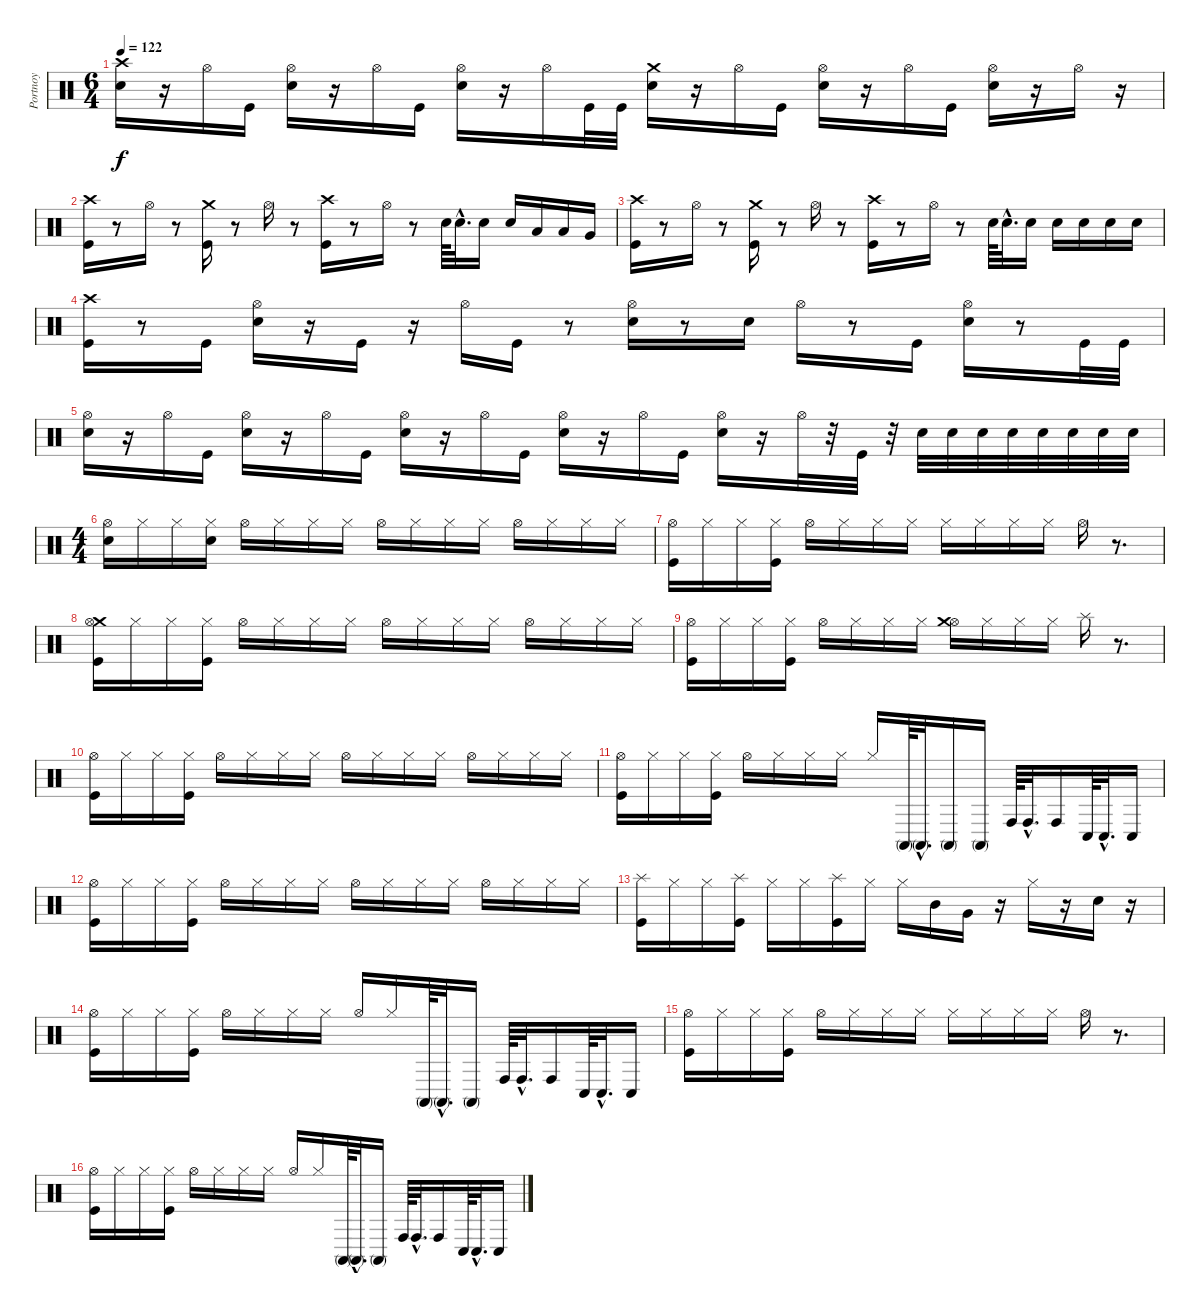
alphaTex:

\track ("Portnoy" "Portnoy") {instrument percussion}
\staff {score}
\articulation defaults
\ts (6 4)
\tempo 122
\clef neutral
\ks c
("Crash high (hit)" "Metronome (bell)").16{dy f} r.16 "Hi-Hat (open)".16 "Kick (hit)".16 ("Hi-Hat (open)" "Metronome (bell)").16 r.16 "Hi-Hat (open)".16 "Kick (hit)".16 ("Hi-Hat (open)" "Metronome (bell)").16 r.16 "Hi-Hat (open)".16 "Kick (hit)".32 "Kick (hit)".32 ("Crash medium (hit)" "Metronome (bell)").16 r.16 "Hi-Hat (open)".16 "Kick (hit)".16 ("Hi-Hat (open)" "Metronome (bell)").16 r.16 "Hi-Hat (open)".16 "Kick (hit)".16 ("Hi-Hat (open)" "Metronome (bell)").16 r.16 "Hi-Hat (open)".16 r.16 |
("Crash high (hit)" "Kick (hit)").16 r.8 "Hi-Hat (open)".16 r.8 ("Crash medium (hit)" "Kick (hit)").16 r.8 "Hi-Hat (open)".16 r.8 ("Crash high (hit)" "Kick (hit)").16 r.8 "Hi-Hat (open)".16 r.8 "Metronome (bell)".64 "Metronome (bell)"{hac}.32{d} "Metronome (bell)".16 "Metronome (bell)".16 "Low Tom (hit)".16 "Low Tom (hit)".16 "Very Low Tom (hit)".16 |
("Crash high (hit)" "Kick (hit)").16 r.8 "Hi-Hat (open)".16 r.8 ("Crash medium (hit)" "Kick (hit)").16 r.8 "Hi-Hat (open)".16 r.8 ("Crash high (hit)" "Kick (hit)").16 r.8 "Hi-Hat (open)".16 r.8 "Metronome (bell)".64 "Metronome (bell)"{hac}.32{d} "Metronome (bell)".16 "Metronome (bell)".16 "Metronome (bell)".16 "Metronome (bell)".16 "Metronome (bell)".16 |
("Crash high (hit)" "Kick (hit)").16 r.8 "Kick (hit)".16 ("Metronome (bell)" "Hi-Hat (open)").16 r.16 "Kick (hit)".16 r.16 "Hi-Hat (open)".16 "Kick (hit)".16 r.8 ("Metronome (bell)" "Hi-Hat (open)").16 r.8 "Metronome (bell)".16 "Hi-Hat (open)".16 r.8 "Kick (hit)".16 ("Metronome (bell)" "Hi-Hat (open)").16 r.8 "Kick (hit)".32 "Kick (hit)".32 |
("Hi-Hat (open)" "Metronome (bell)").16 r.16 "Hi-Hat (open)".16 "Kick (hit)".16 ("Metronome (bell)" "Hi-Hat (open)").16 r.16 "Hi-Hat (open)".16 "Kick (hit)".16 ("Metronome (bell)" "Hi-Hat (open)").16 r.16 "Hi-Hat (open)".16 "Kick (hit)".16 ("Metronome (bell)" "Hi-Hat (open)").16 r.16 "Hi-Hat (open)".16 "Kick (hit)".16 ("Metronome (bell)" "Hi-Hat (open)").16 r.16 "Hi-Hat (open)".32 r.32 "Kick (hit)".32 r.32 "Metronome (bell)".32 "Metronome (bell)".32 "Metronome (bell)".32 "Metronome (bell)".32 "Metronome (bell)".32 "Metronome (bell)".32 "Metronome (bell)".32 "Metronome (bell)".32 |
\ts (4 4)
("Hi-Hat (open)" "Metronome (bell)").16 "Hi-Hat (closed)".16 "Hi-Hat (closed)".16 ("Hi-Hat (closed)" "Metronome (bell)").16 "Hi-Hat (open)".16 "Hi-Hat (closed)".16 "Hi-Hat (closed)".16 "Hi-Hat (closed)".16 "Hi-Hat (open)".16 "Hi-Hat (closed)".16 "Hi-Hat (closed)".16 "Hi-Hat (closed)".16 "Hi-Hat (open)".16 "Hi-Hat (closed)".16 "Hi-Hat (closed)".16 "Hi-Hat (closed)".16 |
("Hi-Hat (open)" "Kick (hit)").16 "Hi-Hat (closed)".16 "Hi-Hat (closed)".16 ("Hi-Hat (closed)" "Kick (hit)").16 "Hi-Hat (open)".16 "Hi-Hat (closed)".16 "Hi-Hat (closed)".16 "Hi-Hat (closed)".16 "Hi-Hat (closed)".16 "Hi-Hat (closed)".16 "Hi-Hat (closed)".16 "Hi-Hat (closed)".16 "Hi-Hat (open)".16 r.8{d} |
("Crash medium (hit)" "Hi-Hat (open)" "Kick (hit)").16 "Hi-Hat (closed)".16 "Hi-Hat (closed)".16 ("Hi-Hat (closed)" "Kick (hit)").16 "Hi-Hat (open)".16 "Hi-Hat (closed)".16 "Hi-Hat (closed)".16 "Hi-Hat (closed)".16 "Hi-Hat (open)".16 "Hi-Hat (closed)".16 "Hi-Hat (closed)".16 "Hi-Hat (closed)".16 "Hi-Hat (open)".16 "Hi-Hat (closed)".16 "Hi-Hat (closed)".16 "Hi-Hat (closed)".16 |
("Hi-Hat (open)" "Kick (hit)").16 "Hi-Hat (closed)".16 "Hi-Hat (closed)".16 ("Hi-Hat (closed)" "Kick (hit)").16 "Hi-Hat (open)".16 "Hi-Hat (closed)".16 "Hi-Hat (closed)".16 "Hi-Hat (closed)".16 ("Hi-Hat (open)" "Crash medium (hit)").16 "Hi-Hat (closed)".16 "Hi-Hat (closed)".16 "Hi-Hat (closed)".16 "Splash (hit)".16 r.8{d} |
("Hi-Hat (open)" "Kick (hit)").16 "Hi-Hat (closed)".16 "Hi-Hat (closed)".16 ("Hi-Hat (closed)" "Kick (hit)").16 "Hi-Hat (open)".16 "Hi-Hat (closed)".16 "Hi-Hat (closed)".16 "Hi-Hat (closed)".16 "Hi-Hat (open)".16 "Hi-Hat (closed)".16 "Hi-Hat (closed)".16 "Hi-Hat (closed)".16 "Hi-Hat (open)".16 "Hi-Hat (closed)".16 "Hi-Hat (closed)".16 "Hi-Hat (closed)".16 |
("Hi-Hat (open)" "Kick (hit)").16 "Hi-Hat (closed)".16 "Hi-Hat (closed)".16 ("Hi-Hat (closed)" "Kick (hit)").16 "Hi-Hat (open)".16 "Hi-Hat (closed)".16 "Hi-Hat (closed)".16 "Hi-Hat (closed)".16 "Hi-Hat (closed)".16 "Conga high (mute)".64 "Conga high (mute)"{hac}.32{d} "Conga high (mute)".16 "Conga high (mute)".16 "Conga high (hit)".64 "Conga high (hit)"{hac}.32{d} "Conga high (hit)".16 "Conga low (hit)".64 "Conga low (hit)"{hac}.32{d} "Conga low (hit)".16 |
("Hi-Hat (open)" "Kick (hit)").16 "Hi-Hat (closed)".16 "Hi-Hat (closed)".16 ("Hi-Hat (closed)" "Kick (hit)").16 "Hi-Hat (open)".16 "Hi-Hat (closed)".16 "Hi-Hat (closed)".16 "Hi-Hat (closed)".16 "Hi-Hat (open)".16 "Hi-Hat (closed)".16 "Hi-Hat (closed)".16 "Hi-Hat (closed)".16 "Hi-Hat (open)".16 "Hi-Hat (closed)".16 "Hi-Hat (closed)".16 "Hi-Hat (closed)".16 |
("Splash (hit)" "Kick (hit)").16 "Hi-Hat (closed)".16 "Hi-Hat (closed)".16 ("Splash (hit)" "Kick (hit)").16 "Hi-Hat (closed)".16 "Hi-Hat (closed)".16 ("Splash (hit)" "Kick (hit)").16 "Hi-Hat (closed)".16 "Hi-Hat (closed)".16 "Mid Tom (hit)".16 "Very Low Tom (hit)".16 r.16 "Hi-Hat (closed)".16 r.16 "Metronome (bell)".16 r.16 |
("Hi-Hat (open)" "Kick (hit)").16 "Hi-Hat (closed)".16 "Hi-Hat (closed)".16 ("Hi-Hat (closed)" "Kick (hit)").16 "Hi-Hat (open)".16 "Hi-Hat (closed)".16 "Hi-Hat (closed)".16 "Hi-Hat (closed)".16 "Hi-Hat (open)".16 "Hi-Hat (closed)".16 "Conga high (mute)".64 "Conga high (mute)"{hac}.32{d} "Conga high (mute)".16 "Conga high (hit)".64 "Conga high (hit)"{hac}.32{d} "Conga high (hit)".16 "Conga low (hit)".64 "Conga low (hit)"{hac}.32{d} "Conga low (hit)".16 |
("Kick (hit)" "Hi-Hat (open)").16 "Hi-Hat (closed)".16 "Hi-Hat (closed)".16 ("Kick (hit)" "Hi-Hat (closed)").16 "Hi-Hat (open)".16 "Hi-Hat (closed)".16 "Hi-Hat (closed)".16 "Hi-Hat (closed)".16 "Hi-Hat (closed)".16 "Hi-Hat (closed)".16 "Hi-Hat (closed)".16 "Hi-Hat (closed)".16 "Hi-Hat (open)".16 r.8{d} |
("Hi-Hat (open)" "Kick (hit)").16 "Hi-Hat (closed)".16 "Hi-Hat (closed)".16 ("Hi-Hat (closed)" "Kick (hit)").16 "Hi-Hat (open)".16 "Hi-Hat (closed)".16 "Hi-Hat (closed)".16 "Hi-Hat (closed)".16 "Hi-Hat (open)".16 "Hi-Hat (closed)".16 "Conga high (mute)".64 "Conga high (mute)"{hac}.32{d} "Conga high (mute)".16 "Conga high (hit)".64 "Conga high (hit)"{hac}.32{d} "Conga high (hit)".16 "Conga low (hit)".64 "Conga low (hit)"{hac}.32{d} "Conga low (hit)".16
